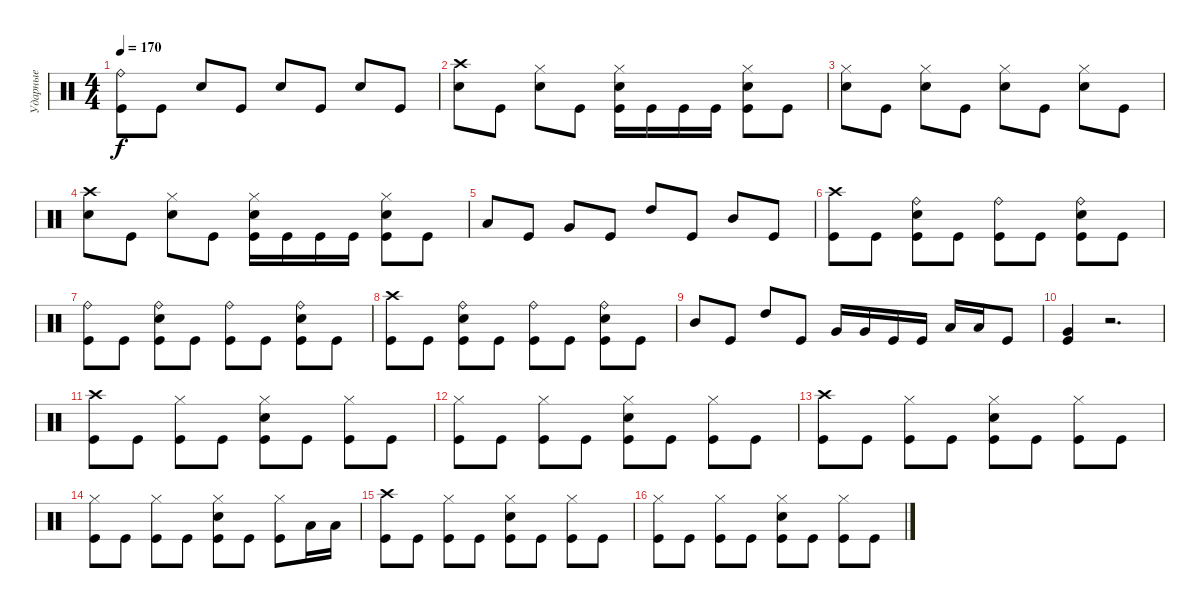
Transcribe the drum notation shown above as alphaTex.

\track ("Ударные" "Ударные") {instrument percussion}
\staff {score}
\articulation defaults
\ts (4 4)
\tempo 170
\clef neutral
\ks c
("Ride (bell)" "Kick (hit)").8{dy f} "Kick (hit)".8 "Electric Snare (hit)".8 "Kick (hit)".8 "Electric Snare (hit)".8 "Kick (hit)".8 "Electric Snare (hit)".8 "Kick (hit)".8 |
("Crash high (hit)" "Electric Snare (hit)").8 "Kick (hit)".8 ("Hi-Hat (closed)" "Electric Snare (hit)").8 "Kick (hit)".8 ("Hi-Hat (closed)" "Electric Snare (hit)" "Kick (hit)").16 "Kick (hit)".16 "Kick (hit)".16 "Kick (hit)".16 ("Hi-Hat (closed)" "Electric Snare (hit)" "Kick (hit)").8 "Kick (hit)".8 |
("Hi-Hat (closed)" "Electric Snare (hit)").8 "Kick (hit)".8 ("Hi-Hat (closed)" "Electric Snare (hit)").8 "Kick (hit)".8 ("Hi-Hat (closed)" "Electric Snare (hit)").8 "Kick (hit)".8 ("Hi-Hat (closed)" "Electric Snare (hit)").8 "Kick (hit)".8 |
("Crash high (hit)" "Electric Snare (hit)").8 "Kick (hit)".8 ("Hi-Hat (closed)" "Electric Snare (hit)").8 "Kick (hit)".8 ("Hi-Hat (closed)" "Electric Snare (hit)" "Kick (hit)").16 "Kick (hit)".16 "Kick (hit)".16 "Kick (hit)".16 ("Hi-Hat (closed)" "Electric Snare (hit)" "Kick (hit)").8 "Kick (hit)".8 |
"Low Tom (hit)".8 "Kick (hit)".8 "Very Low Tom (hit)".8 "Kick (hit)".8 "High Tom (hit)".8 "Kick (hit)".8 "Mid Tom (hit)".8 "Kick (hit)".8 |
("Crash high (hit)" "Kick (hit)").8 "Kick (hit)".8 ("Ride (bell)" "Electric Snare (hit)" "Kick (hit)").8 "Kick (hit)".8 ("Ride (bell)" "Kick (hit)").8 "Kick (hit)".8 ("Ride (bell)" "Electric Snare (hit)" "Kick (hit)").8 "Kick (hit)".8 |
("Ride (bell)" "Kick (hit)").8 "Kick (hit)".8 ("Ride (bell)" "Electric Snare (hit)" "Kick (hit)").8 "Kick (hit)".8 ("Ride (bell)" "Kick (hit)").8 "Kick (hit)".8 ("Ride (bell)" "Electric Snare (hit)" "Kick (hit)").8 "Kick (hit)".8 |
("Crash high (hit)" "Kick (hit)").8 "Kick (hit)".8 ("Ride (bell)" "Electric Snare (hit)" "Kick (hit)").8 "Kick (hit)".8 ("Ride (bell)" "Kick (hit)").8 "Kick (hit)".8 ("Ride (bell)" "Electric Snare (hit)" "Kick (hit)").8 "Kick (hit)".8 |
"Mid Tom (hit)".8 "Kick (hit)".8 "High Tom (hit)".8 "Kick (hit)".8 "Very Low Tom (hit)".16 "Very Low Tom (hit)".16 "Kick (hit)".16 "Kick (hit)".16 "Low Tom (hit)".16 "Low Tom (hit)".16 "Kick (hit)".8 |
("Very Low Tom (hit)" "Kick (hit)").4 r.2{d} |
("Crash high (hit)" "Kick (hit)").8 "Kick (hit)".8 ("Hi-Hat (closed)" "Kick (hit)").8 "Kick (hit)".8 ("Hi-Hat (closed)" "Electric Snare (hit)" "Kick (hit)").8 "Kick (hit)".8 ("Hi-Hat (closed)" "Kick (hit)").8 "Kick (hit)".8 |
("Hi-Hat (closed)" "Kick (hit)").8 "Kick (hit)".8 ("Hi-Hat (closed)" "Kick (hit)").8 "Kick (hit)".8 ("Hi-Hat (closed)" "Electric Snare (hit)" "Kick (hit)").8 "Kick (hit)".8 ("Hi-Hat (closed)" "Kick (hit)").8 "Kick (hit)".8 |
("Crash high (hit)" "Kick (hit)").8 "Kick (hit)".8 ("Hi-Hat (closed)" "Kick (hit)").8 "Kick (hit)".8 ("Hi-Hat (closed)" "Electric Snare (hit)" "Kick (hit)").8 "Kick (hit)".8 ("Hi-Hat (closed)" "Kick (hit)").8 "Kick (hit)".8 |
("Hi-Hat (closed)" "Kick (hit)").8 "Kick (hit)".8 ("Hi-Hat (closed)" "Kick (hit)").8 "Kick (hit)".8 ("Hi-Hat (closed)" "Electric Snare (hit)" "Kick (hit)").8 "Kick (hit)".8 ("Hi-Hat (closed)" "Kick (hit)").8 "Low Tom (hit)".16 "Low Tom (hit)".16 |
("Crash high (hit)" "Kick (hit)").8 "Kick (hit)".8 ("Hi-Hat (closed)" "Kick (hit)").8 "Kick (hit)".8 ("Hi-Hat (closed)" "Electric Snare (hit)" "Kick (hit)").8 "Kick (hit)".8 ("Hi-Hat (closed)" "Kick (hit)").8 "Kick (hit)".8 |
("Hi-Hat (closed)" "Kick (hit)").8 "Kick (hit)".8 ("Hi-Hat (closed)" "Kick (hit)").8 "Kick (hit)".8 ("Hi-Hat (closed)" "Electric Snare (hit)" "Kick (hit)").8 "Kick (hit)".8 ("Hi-Hat (closed)" "Kick (hit)").8 "Kick (hit)".8
